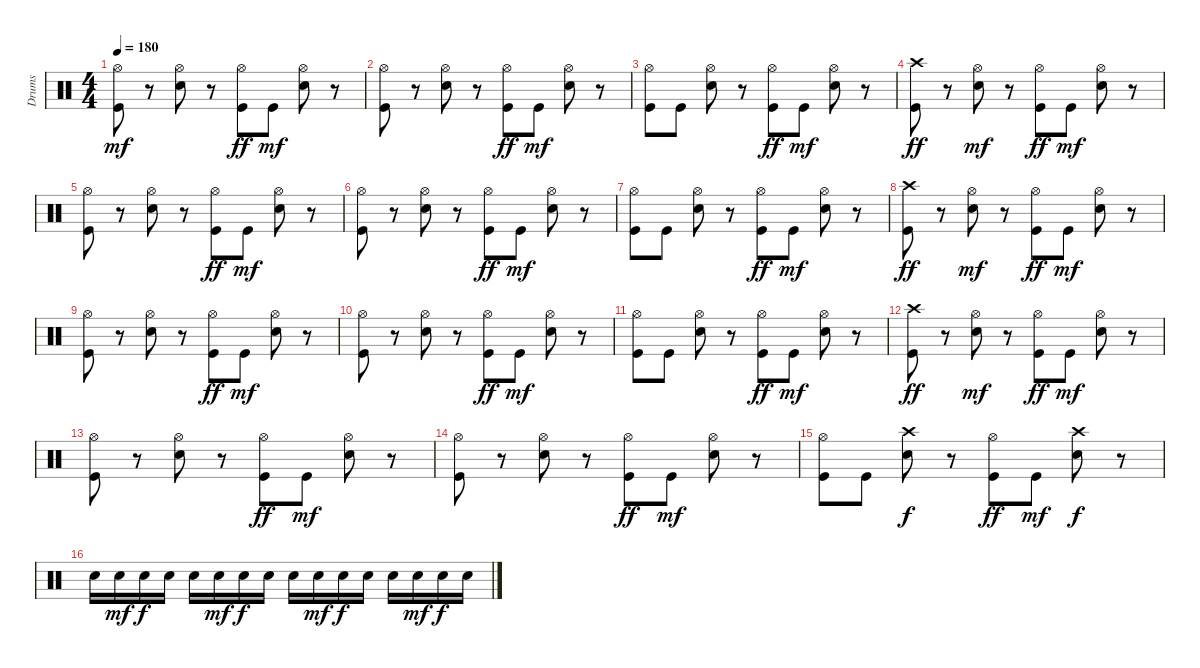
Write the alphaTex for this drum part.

\track ("Drums" "Drums") {instrument percussion}
\staff {score}
\articulation defaults
\ts (4 4)
\tempo 180
\clef neutral
\ks c
("Kick (hit)" "Hi-Hat (open)").8{dy mf} r.8 ("Hi-Hat (open)" "Snare (hit) 2").8 r.8 ("Hi-Hat (open)" "Kick (hit)").8{dy ff} "Kick (hit)".8{dy mf} ("Snare (hit) 2" "Hi-Hat (open)").8 r.8 |
("Kick (hit)" "Hi-Hat (open)").8 r.8 ("Hi-Hat (open)" "Snare (hit) 2").8 r.8 ("Hi-Hat (open)" "Kick (hit)").8{dy ff} "Kick (hit)".8{dy mf} ("Snare (hit) 2" "Hi-Hat (open)").8 r.8 |
("Kick (hit)" "Hi-Hat (open)").8 "Kick (hit)".8 ("Hi-Hat (open)" "Snare (hit) 2").8 r.8 ("Hi-Hat (open)" "Kick (hit)").8{dy ff} "Kick (hit)".8{dy mf} ("Hi-Hat (open)" "Snare (hit) 2").8 r.8 |
("Crash high (hit)" "Kick (hit)").8{dy ff} r.8 ("Hi-Hat (open)" "Snare (hit) 2").8{dy mf} r.8 ("Hi-Hat (open)" "Kick (hit)").8{dy ff} "Kick (hit)".8{dy mf} ("Hi-Hat (open)" "Snare (hit) 2").8 r.8 |
("Kick (hit)" "Hi-Hat (open)").8 r.8 ("Hi-Hat (open)" "Snare (hit) 2").8 r.8 ("Hi-Hat (open)" "Kick (hit)").8{dy ff} "Kick (hit)".8{dy mf} ("Snare (hit) 2" "Hi-Hat (open)").8 r.8 |
("Kick (hit)" "Hi-Hat (open)").8 r.8 ("Hi-Hat (open)" "Snare (hit) 2").8 r.8 ("Hi-Hat (open)" "Kick (hit)").8{dy ff} "Kick (hit)".8{dy mf} ("Snare (hit) 2" "Hi-Hat (open)").8 r.8 |
("Kick (hit)" "Hi-Hat (open)").8 "Kick (hit)".8 ("Hi-Hat (open)" "Snare (hit) 2").8 r.8 ("Hi-Hat (open)" "Kick (hit)").8{dy ff} "Kick (hit)".8{dy mf} ("Hi-Hat (open)" "Snare (hit) 2").8 r.8 |
("Crash high (hit)" "Kick (hit)").8{dy ff} r.8 ("Hi-Hat (open)" "Snare (hit) 2").8{dy mf} r.8 ("Hi-Hat (open)" "Kick (hit)").8{dy ff} "Kick (hit)".8{dy mf} ("Hi-Hat (open)" "Snare (hit) 2").8 r.8 |
("Kick (hit)" "Hi-Hat (open)").8 r.8 ("Hi-Hat (open)" "Snare (hit) 2").8 r.8 ("Hi-Hat (open)" "Kick (hit)").8{dy ff} "Kick (hit)".8{dy mf} ("Snare (hit) 2" "Hi-Hat (open)").8 r.8 |
("Kick (hit)" "Hi-Hat (open)").8 r.8 ("Hi-Hat (open)" "Snare (hit) 2").8 r.8 ("Hi-Hat (open)" "Kick (hit)").8{dy ff} "Kick (hit)".8{dy mf} ("Snare (hit) 2" "Hi-Hat (open)").8 r.8 |
("Kick (hit)" "Hi-Hat (open)").8 "Kick (hit)".8 ("Hi-Hat (open)" "Snare (hit) 2").8 r.8 ("Hi-Hat (open)" "Kick (hit)").8{dy ff} "Kick (hit)".8{dy mf} ("Hi-Hat (open)" "Snare (hit) 2").8 r.8 |
("Crash high (hit)" "Kick (hit)").8{dy ff} r.8 ("Hi-Hat (open)" "Snare (hit) 2").8{dy mf} r.8 ("Hi-Hat (open)" "Kick (hit)").8{dy ff} "Kick (hit)".8{dy mf} ("Hi-Hat (open)" "Snare (hit) 2").8 r.8 |
("Kick (hit)" "Hi-Hat (open)").8 r.8 ("Hi-Hat (open)" "Snare (hit) 2").8 r.8 ("Hi-Hat (open)" "Kick (hit)").8{dy ff} "Kick (hit)".8{dy mf} ("Snare (hit) 2" "Hi-Hat (open)").8 r.8 |
("Kick (hit)" "Hi-Hat (open)").8 r.8 ("Hi-Hat (open)" "Snare (hit) 2").8 r.8 ("Hi-Hat (open)" "Kick (hit)").8{dy ff} "Kick (hit)".8{dy mf} ("Snare (hit) 2" "Hi-Hat (open)").8 r.8 |
("Kick (hit)" "Hi-Hat (open)").8 "Kick (hit)".8 ("Crash high (hit)" "Snare (hit) 2").8{dy f} r.8 ("Hi-Hat (open)" "Kick (hit)").8{dy ff} "Kick (hit)".8{dy mf} ("Crash high (hit)" "Snare (hit) 2").8{dy f} r.8 |
"Snare (hit) 2".16 "Electric Snare (hit)".16{dy mf} "Electric Snare (hit)".16{dy f} "Electric Snare (hit)".16 "Snare (hit) 2".16 "Electric Snare (hit)".16{dy mf} "Electric Snare (hit)".16{dy f} "Electric Snare (hit)".16 "Snare (hit) 2".16 "Electric Snare (hit)".16{dy mf} "Electric Snare (hit)".16{dy f} "Electric Snare (hit)".16 "Snare (hit) 2".16 "Electric Snare (hit)".16{dy mf} "Electric Snare (hit)".16{dy f} "Electric Snare (hit)".16
